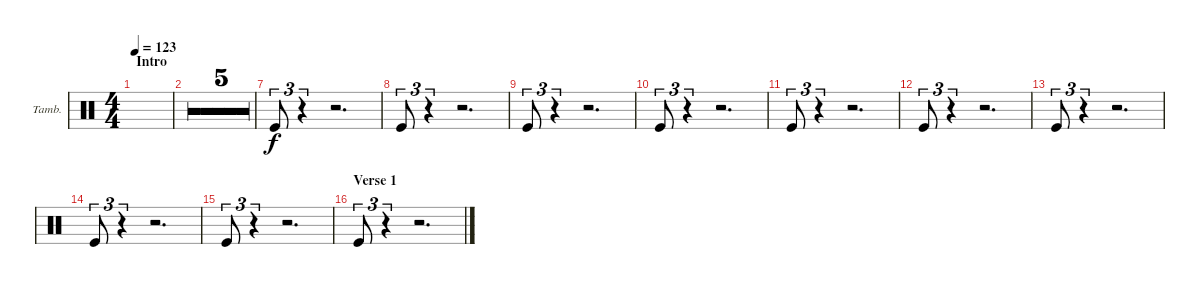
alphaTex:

\defaultSystemsLayout 4
\bracketExtendMode groupsimilarinstruments
\firstSystemTrackNameOrientation horizontal
\otherSystemsTrackNameOrientation horizontal
\track ("Tambourine" "Tamb.") {multiBarRest instrument percussion}
\staff {score}
\articulation defaults
\ts (4 4)
\section ("" "Intro")
\tempo 123
\clef neutral
\ks c
|
|
|
|
|
|
"Kick (hit)".8{tu (3 2)} r.4{tu (3 2)} r.2{d} |
"Kick (hit)".8{tu (3 2)} r.4{tu (3 2)} r.2{d} |
"Kick (hit)".8{tu (3 2)} r.4{tu (3 2)} r.2{d} |
"Kick (hit)".8{tu (3 2)} r.4{tu (3 2)} r.2{d} |
"Kick (hit)".8{tu (3 2)} r.4{tu (3 2)} r.2{d} |
"Kick (hit)".8{tu (3 2)} r.4{tu (3 2)} r.2{d} |
"Kick (hit)".8{tu (3 2)} r.4{tu (3 2)} r.2{d} |
"Kick (hit)".8{tu (3 2)} r.4{tu (3 2)} r.2{d} |
"Kick (hit)".8{tu (3 2)} r.4{tu (3 2)} r.2{d} |
\section ("" "Verse 1")
"Kick (hit)".8{tu (3 2)} r.4{tu (3 2)} r.2{d}
